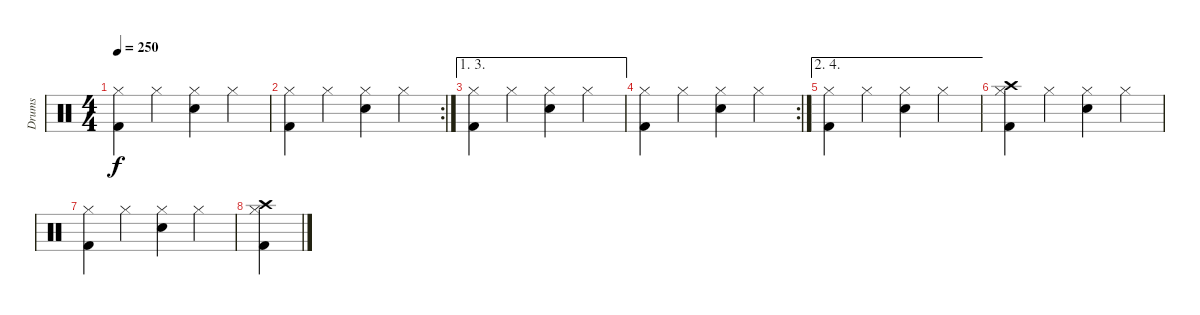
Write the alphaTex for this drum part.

\track ("Drums" "Drums") {instrument percussion}
\staff {score}
\articulation defaults
\ts (4 4)
\tempo 250
\clef neutral
\ks c
("Hi-Hat (closed)" "Kick (hit) 2").4{dy f} "Hi-Hat (closed)".4 ("Hi-Hat (closed)" "Snare (hit) 2").4 "Hi-Hat (closed)".4 |
\rc 2
("Hi-Hat (closed)" "Kick (hit) 2").4 "Hi-Hat (closed)".4 ("Hi-Hat (closed)" "Snare (hit) 2").4 "Hi-Hat (closed)".4 |
\ae (1 3)
("Hi-Hat (closed)" "Kick (hit) 2").4 "Hi-Hat (closed)".4 ("Hi-Hat (closed)" "Snare (hit) 2").4 "Hi-Hat (closed)".4 |
\rc 2
("Hi-Hat (closed)" "Kick (hit) 2").4 "Hi-Hat (closed)".4 ("Hi-Hat (closed)" "Snare (hit) 2").4 "Hi-Hat (closed)".4 |
\ae (2 4)
("Hi-Hat (closed)" "Kick (hit) 2").4 "Hi-Hat (closed)".4 ("Hi-Hat (closed)" "Snare (hit) 2").4 "Hi-Hat (closed)".4 |
("Crash high (hit)" "Hi-Hat (closed)" "Kick (hit) 2").4 "Hi-Hat (closed)".4 ("Hi-Hat (closed)" "Snare (hit) 2").4 "Hi-Hat (closed)".4 |
("Hi-Hat (closed)" "Kick (hit) 2").4 "Hi-Hat (closed)".4 ("Hi-Hat (closed)" "Snare (hit) 2").4 "Hi-Hat (closed)".4 |
("Crash high (hit)" "Hi-Hat (closed)" "Kick (hit) 2").4
